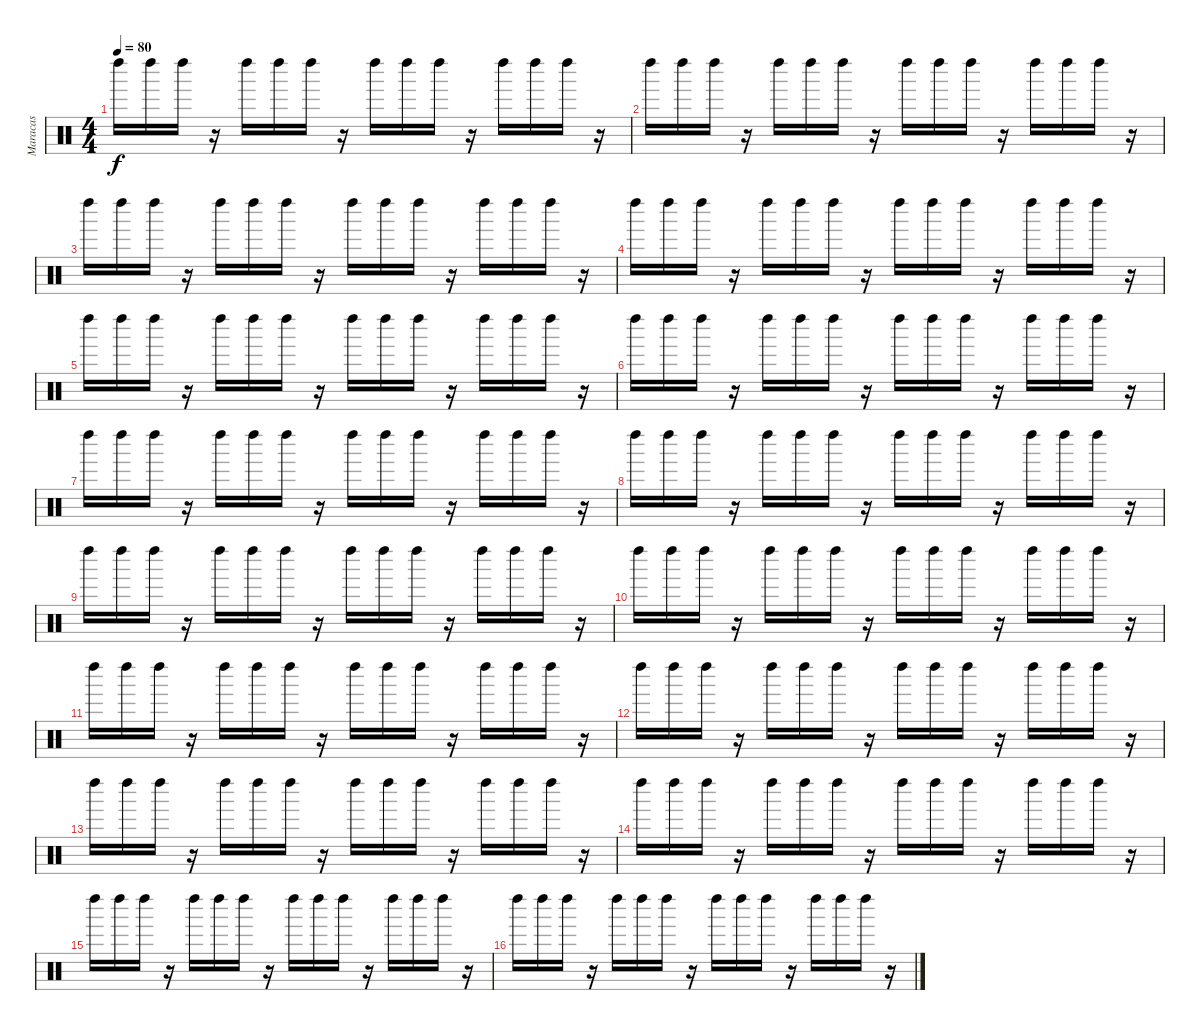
\track ("Maracas" "Maracas") {instrument percussion}
\staff {score}
\articulation defaults
\ts (4 4)
\tempo 80
\clef neutral
\ks c "Left Maraca (hit)".16{dy f} "Left Maraca (hit)".16 "Left Maraca (hit)".16
r.16 "Left Maraca (hit)".16 "Left Maraca (hit)".16 "Left Maraca (hit)".16 r.16 "Left Maraca (hit)".16 "Left Maraca (hit)".16 "Left Maraca (hit)".16 r.16 "Left Maraca (hit)".16 "Left Maraca (hit)".16 "Left Maraca (hit)".16 r.16 |
"Left Maraca (hit)".16 "Left Maraca (hit)".16 "Left Maraca (hit)".16 r.16 "Left Maraca (hit)".16 "Left Maraca (hit)".16 "Left Maraca (hit)".16 r.16 "Left Maraca (hit)".16 "Left Maraca (hit)".16 "Left Maraca (hit)".16 r.16 "Left Maraca (hit)".16 "Left Maraca (hit)".16 "Left Maraca (hit)".16 r.16 |
"Left Maraca (hit)".16 "Left Maraca (hit)".16 "Left Maraca (hit)".16 r.16 "Left Maraca (hit)".16 "Left Maraca (hit)".16 "Left Maraca (hit)".16 r.16 "Left Maraca (hit)".16 "Left Maraca (hit)".16 "Left Maraca (hit)".16 r.16 "Left Maraca (hit)".16 "Left Maraca (hit)".16 "Left Maraca (hit)".16 r.16 |
"Left Maraca (hit)".16 "Left Maraca (hit)".16 "Left Maraca (hit)".16 r.16 "Left Maraca (hit)".16 "Left Maraca (hit)".16 "Left Maraca (hit)".16 r.16 "Left Maraca (hit)".16 "Left Maraca (hit)".16 "Left Maraca (hit)".16 r.16 "Left Maraca (hit)".16 "Left Maraca (hit)".16 "Left Maraca (hit)".16 r.16 |
"Left Maraca (hit)".16 "Left Maraca (hit)".16 "Left Maraca (hit)".16 r.16 "Left Maraca (hit)".16 "Left Maraca (hit)".16 "Left Maraca (hit)".16 r.16 "Left Maraca (hit)".16 "Left Maraca (hit)".16 "Left Maraca (hit)".16 r.16 "Left Maraca (hit)".16 "Left Maraca (hit)".16 "Left Maraca (hit)".16 r.16 |
"Left Maraca (hit)".16 "Left Maraca (hit)".16 "Left Maraca (hit)".16 r.16 "Left Maraca (hit)".16 "Left Maraca (hit)".16 "Left Maraca (hit)".16 r.16 "Left Maraca (hit)".16 "Left Maraca (hit)".16 "Left Maraca (hit)".16 r.16 "Left Maraca (hit)".16 "Left Maraca (hit)".16 "Left Maraca (hit)".16 r.16 |
"Left Maraca (hit)".16 "Left Maraca (hit)".16 "Left Maraca (hit)".16 r.16 "Left Maraca (hit)".16 "Left Maraca (hit)".16 "Left Maraca (hit)".16 r.16 "Left Maraca (hit)".16 "Left Maraca (hit)".16 "Left Maraca (hit)".16 r.16 "Left Maraca (hit)".16 "Left Maraca (hit)".16 "Left Maraca (hit)".16 r.16 |
"Left Maraca (hit)".16 "Left Maraca (hit)".16 "Left Maraca (hit)".16 r.16 "Left Maraca (hit)".16 "Left Maraca (hit)".16 "Left Maraca (hit)".16 r.16 "Left Maraca (hit)".16 "Left Maraca (hit)".16 "Left Maraca (hit)".16 r.16 "Left Maraca (hit)".16 "Left Maraca (hit)".16 "Left Maraca (hit)".16 r.16 |
"Left Maraca (hit)".16 "Left Maraca (hit)".16 "Left Maraca (hit)".16 r.16 "Left Maraca (hit)".16 "Left Maraca (hit)".16 "Left Maraca (hit)".16 r.16 "Left Maraca (hit)".16 "Left Maraca (hit)".16 "Left Maraca (hit)".16 r.16 "Left Maraca (hit)".16 "Left Maraca (hit)".16 "Left Maraca (hit)".16 r.16 |
"Left Maraca (hit)".16 "Left Maraca (hit)".16 "Left Maraca (hit)".16 r.16 "Left Maraca (hit)".16 "Left Maraca (hit)".16 "Left Maraca (hit)".16 r.16 "Left Maraca (hit)".16 "Left Maraca (hit)".16 "Left Maraca (hit)".16 r.16 "Left Maraca (hit)".16 "Left Maraca (hit)".16 "Left Maraca (hit)".16 r.16 |
"Left Maraca (hit)".16 "Left Maraca (hit)".16 "Left Maraca (hit)".16 r.16 "Left Maraca (hit)".16 "Left Maraca (hit)".16 "Left Maraca (hit)".16 r.16 "Left Maraca (hit)".16 "Left Maraca (hit)".16 "Left Maraca (hit)".16 r.16 "Left Maraca (hit)".16 "Left Maraca (hit)".16 "Left Maraca (hit)".16 r.16 |
"Left Maraca (hit)".16 "Left Maraca (hit)".16 "Left Maraca (hit)".16 r.16 "Left Maraca (hit)".16 "Left Maraca (hit)".16 "Left Maraca (hit)".16 r.16 "Left Maraca (hit)".16 "Left Maraca (hit)".16 "Left Maraca (hit)".16 r.16 "Left Maraca (hit)".16 "Left Maraca (hit)".16 "Left Maraca (hit)".16 r.16 |
"Left Maraca (hit)".16 "Left Maraca (hit)".16 "Left Maraca (hit)".16 r.16 "Left Maraca (hit)".16 "Left Maraca (hit)".16 "Left Maraca (hit)".16 r.16 "Left Maraca (hit)".16 "Left Maraca (hit)".16 "Left Maraca (hit)".16 r.16 "Left Maraca (hit)".16 "Left Maraca (hit)".16 "Left Maraca (hit)".16 r.16 |
"Left Maraca (hit)".16 "Left Maraca (hit)".16 "Left Maraca (hit)".16 r.16 "Left Maraca (hit)".16 "Left Maraca (hit)".16 "Left Maraca (hit)".16 r.16 "Left Maraca (hit)".16 "Left Maraca (hit)".16 "Left Maraca (hit)".16 r.16 "Left Maraca (hit)".16 "Left Maraca (hit)".16 "Left Maraca (hit)".16 r.16 |
"Left Maraca (hit)".16 "Left Maraca (hit)".16 "Left Maraca (hit)".16 r.16 "Left Maraca (hit)".16 "Left Maraca (hit)".16 "Left Maraca (hit)".16 r.16 "Left Maraca (hit)".16 "Left Maraca (hit)".16 "Left Maraca (hit)".16 r.16 "Left Maraca (hit)".16 "Left Maraca (hit)".16 "Left Maraca (hit)".16 r.16 |
"Left Maraca (hit)".16 "Left Maraca (hit)".16 "Left Maraca (hit)".16 r.16 "Left Maraca (hit)".16 "Left Maraca (hit)".16 "Left Maraca (hit)".16 r.16 "Left Maraca (hit)".16 "Left Maraca (hit)".16 "Left Maraca (hit)".16 r.16 "Left Maraca (hit)".16 "Left Maraca (hit)".16 "Left Maraca (hit)".16 r.16
